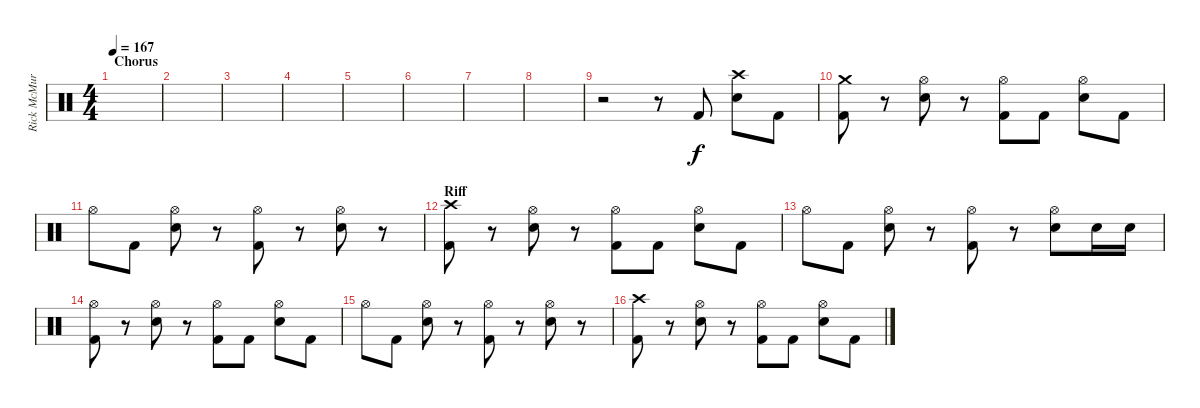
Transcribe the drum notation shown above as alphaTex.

\track ("Rick McMurray" "Rick McMur") {instrument percussion}
\staff {score}
\articulation defaults
\ts (4 4)
\section ("" "Chorus")
\tempo 167
\clef neutral
\ks c
|
|
|
|
|
|
|
|
r.2 r.8 "Kick (hit) 2".8 ("Crash high (hit)" "Electric Snare (hit)").8 "Kick (hit) 2".8 |
("Crash medium (hit)" "Kick (hit) 2").8 r.8 ("Hi-Hat (open)" "Electric Snare (hit)").8 r.8 ("Hi-Hat (open)" "Kick (hit) 2").8 "Kick (hit) 2".8 ("Hi-Hat (open)" "Electric Snare (hit)").8 "Kick (hit) 2".8 |
"Hi-Hat (open)".8 "Kick (hit) 2".8 ("Hi-Hat (open)" "Electric Snare (hit)").8 r.8 ("Hi-Hat (open)" "Kick (hit) 2").8 r.8 ("Hi-Hat (open)" "Electric Snare (hit)").8 r.8 |
\section ("" "Riff")
("Crash high (hit)" "Kick (hit) 2").8 r.8 ("Hi-Hat (open)" "Electric Snare (hit)").8 r.8 ("Hi-Hat (open)" "Kick (hit) 2").8 "Kick (hit) 2".8 ("Hi-Hat (open)" "Electric Snare (hit)").8 "Kick (hit) 2".8 |
"Hi-Hat (open)".8 "Kick (hit) 2".8 ("Hi-Hat (open)" "Electric Snare (hit)").8 r.8 ("Hi-Hat (open)" "Kick (hit) 2").8 r.8 ("Hi-Hat (open)" "Electric Snare (hit)").8 "Electric Snare (hit)".16 "Electric Snare (hit)".16 |
("Hi-Hat (open)" "Kick (hit) 2").8 r.8 ("Hi-Hat (open)" "Electric Snare (hit)").8 r.8 ("Hi-Hat (open)" "Kick (hit) 2").8 "Kick (hit) 2".8 ("Hi-Hat (open)" "Electric Snare (hit)").8 "Kick (hit) 2".8 |
"Hi-Hat (open)".8 "Kick (hit) 2".8 ("Hi-Hat (open)" "Electric Snare (hit)").8 r.8 ("Hi-Hat (open)" "Kick (hit) 2").8 r.8 ("Hi-Hat (open)" "Electric Snare (hit)").8 r.8 |
("Crash high (hit)" "Kick (hit) 2").8 r.8 ("Hi-Hat (open)" "Electric Snare (hit)").8 r.8 ("Hi-Hat (open)" "Kick (hit) 2").8 "Kick (hit) 2".8 ("Hi-Hat (open)" "Electric Snare (hit)").8 "Kick (hit) 2".8
